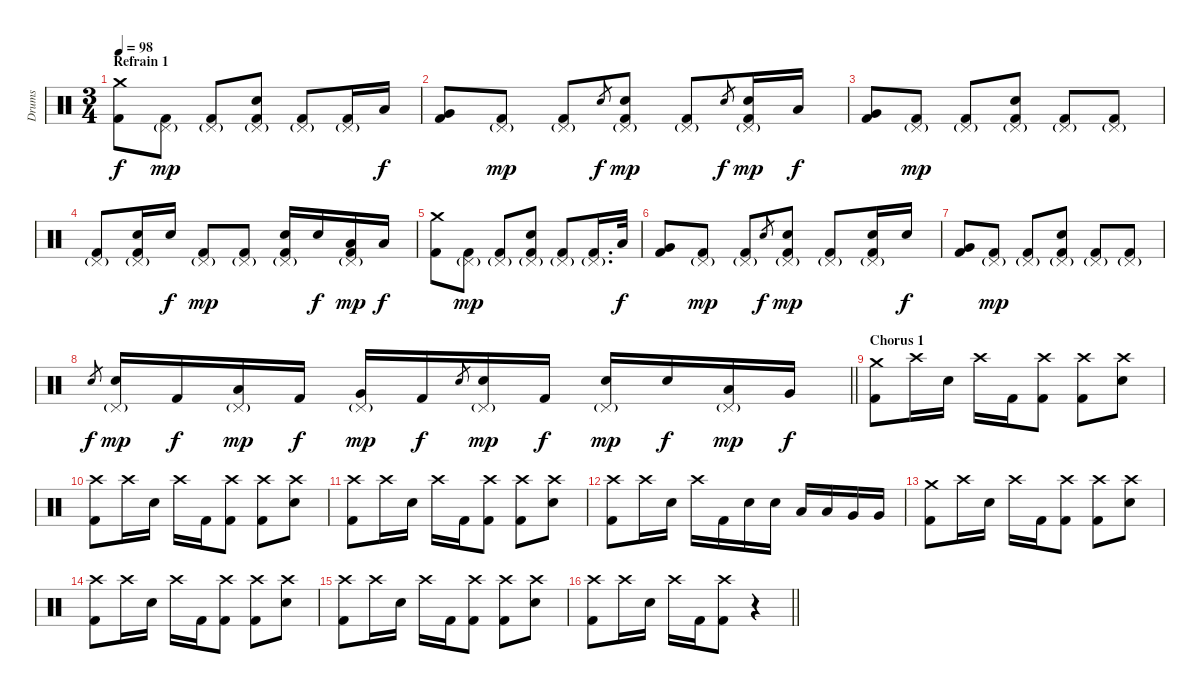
\track ("Drums" "Drums") {instrument percussion}
\staff {score}
\articulation defaults
\ts (3 4)
\section ("" "Refrain 1")
\tempo 98
\clef neutral
\ks c
("Crash medium (hit)" "Kick (hit) 2").8{dy f} ("Pedal Hi-Hat (hit)"{g} "Kick (hit) 2").8{dy mp} ("Pedal Hi-Hat (hit)"{g} "Kick (hit) 2").8 ("Pedal Hi-Hat (hit)"{g} "Electric Snare (hit)" "Kick (hit) 2").8 ("Pedal Hi-Hat (hit)"{g} "Kick (hit) 2").8 ("Pedal Hi-Hat (hit)"{g} "Kick (hit) 2").16 "Low Tom (hit)".16{dy f} |
("Very Low Tom (hit)" "Kick (hit) 2").8 ("Pedal Hi-Hat (hit)"{g} "Kick (hit) 2").8{dy mp} ("Pedal Hi-Hat (hit)"{g} "Kick (hit) 2").8 "Electric Snare (hit)".8{gr dy f} ("Pedal Hi-Hat (hit)"{g} "Electric Snare (hit)" "Kick (hit) 2").8{dy mp} ("Pedal Hi-Hat (hit)"{g} "Kick (hit) 2").8 "Electric Snare (hit)".8{gr dy f} ("Pedal Hi-Hat (hit)"{g} "Electric Snare (hit)" "Kick (hit) 2").16{dy mp} "Low Tom (hit)".16{dy f} |
("Very Low Tom (hit)" "Kick (hit) 2").8 ("Pedal Hi-Hat (hit)"{g} "Kick (hit) 2").8{dy mp} ("Pedal Hi-Hat (hit)"{g} "Kick (hit) 2").8 ("Pedal Hi-Hat (hit)"{g} "Electric Snare (hit)" "Kick (hit) 2").8 ("Pedal Hi-Hat (hit)"{g} "Kick (hit) 2").8 ("Pedal Hi-Hat (hit)"{g} "Kick (hit) 2").8 |
("Pedal Hi-Hat (hit)"{g} "Kick (hit) 2").8 ("Pedal Hi-Hat (hit)"{g} "Electric Snare (hit)" "Kick (hit) 2").16 "Electric Snare (hit)".16{dy f} ("Pedal Hi-Hat (hit)"{g} "Kick (hit) 2").8{dy mp} ("Pedal Hi-Hat (hit)"{g} "Kick (hit) 2").8 ("Pedal Hi-Hat (hit)"{g} "Electric Snare (hit)" "Kick (hit) 2").16 "Electric Snare (hit)".16{dy f} ("Pedal Hi-Hat (hit)"{g} "Low Tom (hit)" "Kick (hit) 2").16{dy mp} "Low Tom (hit)".16{dy f} |
("Crash medium (hit)" "Kick (hit) 2").8 ("Pedal Hi-Hat (hit)"{g} "Kick (hit) 2").8{dy mp} ("Pedal Hi-Hat (hit)"{g} "Kick (hit) 2").8 ("Pedal Hi-Hat (hit)"{g} "Electric Snare (hit)" "Kick (hit) 2").8 ("Pedal Hi-Hat (hit)"{g} "Kick (hit) 2").8 ("Pedal Hi-Hat (hit)"{g} "Kick (hit) 2").16{d} "Low Tom (hit)".32{dy f} |
("Very Low Tom (hit)" "Kick (hit) 2").8 ("Pedal Hi-Hat (hit)"{g} "Kick (hit) 2").8{dy mp} ("Pedal Hi-Hat (hit)"{g} "Kick (hit) 2").8 "Electric Snare (hit)".8{gr dy f} ("Pedal Hi-Hat (hit)"{g} "Electric Snare (hit)" "Kick (hit) 2").8{dy mp} ("Pedal Hi-Hat (hit)"{g} "Kick (hit) 2").8 ("Pedal Hi-Hat (hit)"{g} "Electric Snare (hit)" "Kick (hit) 2").16 "Electric Snare (hit)".16{dy f} |
("Very Low Tom (hit)" "Kick (hit) 2").8 ("Pedal Hi-Hat (hit)"{g} "Kick (hit) 2").8{dy mp} ("Pedal Hi-Hat (hit)"{g} "Kick (hit) 2").8 ("Pedal Hi-Hat (hit)"{g} "Electric Snare (hit)" "Kick (hit) 2").8 ("Pedal Hi-Hat (hit)"{g} "Kick (hit) 2").8 ("Pedal Hi-Hat (hit)"{g} "Kick (hit) 2").8 |
\barLineRight lightlight "Electric Snare (hit)".8{gr dy f}
("Pedal Hi-Hat (hit)"{g} "Electric Snare (hit)").16{dy mp} "Kick (hit) 2".16{dy f} ("Pedal Hi-Hat (hit)"{g} "Low Tom (hit)").16{dy mp} "Kick (hit) 2".16{dy f} ("Pedal Hi-Hat (hit)"{g} "Very Low Tom (hit)").16{dy mp} "Kick (hit) 2".16{dy f} "Electric Snare (hit)".8{gr} ("Pedal Hi-Hat (hit)"{g} "Electric Snare (hit)").16{dy mp} "Kick (hit) 2".16{dy f} ("Pedal Hi-Hat (hit)"{g} "Electric Snare (hit)").16{dy mp} "Electric Snare (hit)".16{dy f} ("Pedal Hi-Hat (hit)"{g} "Low Tom (hit)").16{dy mp} "Very Low Tom (hit)".16{dy f} |
\section ("" "Chorus 1")
("Crash medium (hit)" "Kick (hit) 2").8 "Crash high (hit)".16 "Electric Snare (hit)".16 "Crash high (hit)".16 "Kick (hit) 2".16 ("Crash high (hit)" "Kick (hit) 2").8 ("Crash high (hit)" "Kick (hit) 2").8 ("Crash high (hit)" "Electric Snare (hit)").8 |
("Crash high (hit)" "Kick (hit) 2").8 "Crash high (hit)".16 "Electric Snare (hit)".16 "Crash high (hit)".16 "Kick (hit) 2".16 ("Crash high (hit)" "Kick (hit) 2").8 ("Crash high (hit)" "Kick (hit) 2").8 ("Crash high (hit)" "Electric Snare (hit)").8 |
("Crash high (hit)" "Kick (hit) 2").8 "Crash high (hit)".16 "Electric Snare (hit)".16 "Crash high (hit)".16 "Kick (hit) 2".16 ("Crash high (hit)" "Kick (hit) 2").8 ("Crash high (hit)" "Kick (hit) 2").8 ("Crash high (hit)" "Electric Snare (hit)").8 |
("Crash high (hit)" "Kick (hit) 2").8 "Crash high (hit)".16 "Electric Snare (hit)".16 "Crash high (hit)".16 "Kick (hit) 2".16 "Electric Snare (hit)".16 "Electric Snare (hit)".16 "Low Tom (hit)".16 "Low Tom (hit)".16 "Very Low Tom (hit)".16 "Very Low Tom (hit)".16 |
("Crash medium (hit)" "Kick (hit) 2").8 "Crash high (hit)".16 "Electric Snare (hit)".16 "Crash high (hit)".16 "Kick (hit) 2".16 ("Crash high (hit)" "Kick (hit) 2").8 ("Crash high (hit)" "Kick (hit) 2").8 ("Crash high (hit)" "Electric Snare (hit)").8 |
("Crash high (hit)" "Kick (hit) 2").8 "Crash high (hit)".16 "Electric Snare (hit)".16 "Crash high (hit)".16 "Kick (hit) 2".16 ("Crash high (hit)" "Kick (hit) 2").8 ("Crash high (hit)" "Kick (hit) 2").8 ("Crash high (hit)" "Electric Snare (hit)").8 |
("Crash high (hit)" "Kick (hit) 2").8 "Crash high (hit)".16 "Electric Snare (hit)".16 "Crash high (hit)".16 "Kick (hit) 2".16 ("Crash high (hit)" "Kick (hit) 2").8 ("Crash high (hit)" "Kick (hit) 2").8 ("Crash high (hit)" "Electric Snare (hit)").8 |
\barLineRight lightlight
("Crash high (hit)" "Kick (hit) 2").8 "Crash high (hit)".16 "Electric Snare (hit)".16 "Crash high (hit)".16 "Kick (hit) 2".16 ("Crash high (hit)" "Kick (hit) 2").8 r.4
